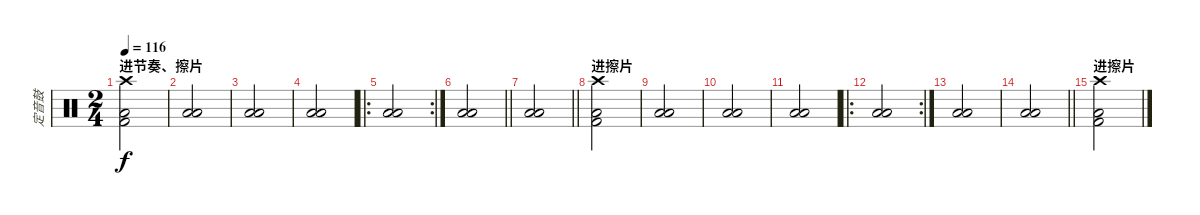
\track ("定音鼓" "定音鼓") {instrument percussion}
\staff {score}
\articulation defaults
\ts (2 4)
\section ("" "进节奏、擦片")
\tempo 116
\clef neutral
\ks c
("Crash high (hit)" "Low Floor Tom (hit)" "Kick (hit) 2").2{dy f} |
("Low Floor Tom (hit)" "Low Floor Tom (hit)").2 |
("Low Floor Tom (hit)" "Low Floor Tom (hit)").2 |
("Low Floor Tom (hit)" "Low Floor Tom (hit)").2 |
\ro
\rc 2
("Low Floor Tom (hit)" "Low Floor Tom (hit)").2 |
\barLineRight lightlight
("Low Floor Tom (hit)" "Low Floor Tom (hit)").2 |
\barLineRight lightlight
("Low Floor Tom (hit)" "Low Floor Tom (hit)").2 |
\section ("" "进擦片")
("Crash high (hit)" "Low Floor Tom (hit)" "Kick (hit) 2").2 |
("Low Floor Tom (hit)" "Low Floor Tom (hit)").2 |
("Low Floor Tom (hit)" "Low Floor Tom (hit)").2 |
("Low Floor Tom (hit)" "Low Floor Tom (hit)").2 |
\ro
\rc 2
("Low Floor Tom (hit)" "Low Floor Tom (hit)").2 |
("Low Floor Tom (hit)" "Low Floor Tom (hit)").2 |
\barLineRight lightlight
("Low Floor Tom (hit)" "Low Floor Tom (hit)").2 |
\section ("" "进擦片")
("Crash high (hit)" "Low Floor Tom (hit)" "Kick (hit) 2").2
